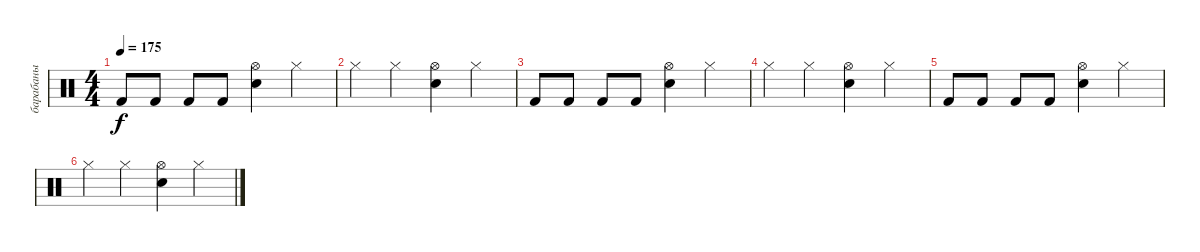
\track ("барабаны" "барабаны") {instrument percussion}
\staff {score}
\articulation defaults
\ts (4 4)
\tempo 175
\clef neutral
\ks c "Kick (hit) 2".8{dy f} "Kick (hit) 2".8 "Kick (hit) 2".8 "Kick (hit) 2".8
("Hi-Hat (open)" "Snare (hit) 2").4 "Hi-Hat (closed)".4 |
"Hi-Hat (closed)".4 "Hi-Hat (closed)".4 ("Hi-Hat (open)" "Snare (hit) 2").4 "Hi-Hat (closed)".4 |
"Kick (hit) 2".8 "Kick (hit) 2".8 "Kick (hit) 2".8 "Kick (hit) 2".8 ("Hi-Hat (open)" "Snare (hit) 2").4 "Hi-Hat (closed)".4 |
"Hi-Hat (closed)".4 "Hi-Hat (closed)".4 ("Hi-Hat (open)" "Snare (hit) 2").4 "Hi-Hat (closed)".4 |
"Kick (hit) 2".8 "Kick (hit) 2".8 "Kick (hit) 2".8 "Kick (hit) 2".8 ("Hi-Hat (open)" "Snare (hit) 2").4 "Hi-Hat (closed)".4 |
"Hi-Hat (closed)".4 "Hi-Hat (closed)".4 ("Hi-Hat (open)" "Snare (hit) 2").4 "Hi-Hat (closed)".4
